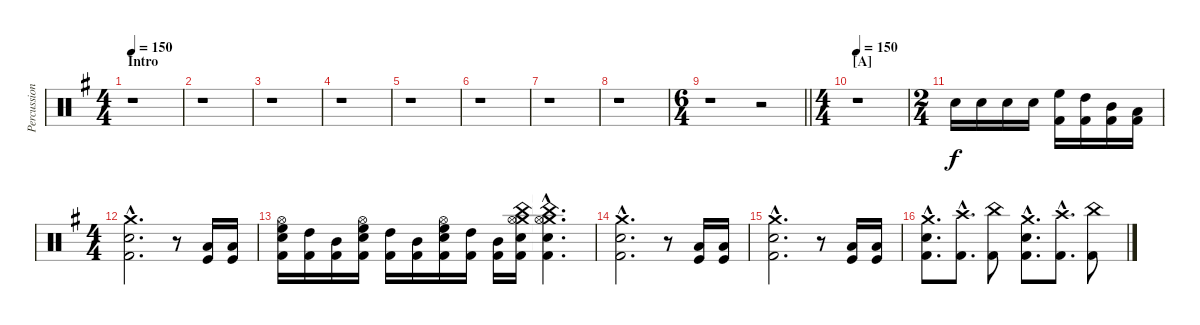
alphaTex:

\track ("Percussion" "Percussion") {instrument percussion}
\staff {score}
\articulation defaults
\ts (4 4)
\section ("" "Intro")
\tempo 150
\clef neutral
\ks eminor
r.1{dy f} |
r.1 |
r.1 |
r.1 |
r.1 |
r.1 |
r.1 |
r.1 |
\ts (6 4)
\barLineRight lightlight
r.1 r.2 |
\ts (4 4)
\section ("" "[A]")
\tempo 150
r.1 |
\ts (2 4)
"Snare (hit) 2".16 "Snare (hit) 2".16 "Snare (hit) 2".16 "Snare (hit) 2".16 ("High Floor Tom (hit)" "Kick (hit) 2").16 ("High Tom (hit)" "Kick (hit) 2").16 ("Mid Tom (hit)" "Kick (hit) 2").16 ("Low Tom (hit)" "Kick (hit) 2").16 |
\ts (4 4)
("Crash medium (hit)"{hac} "Snare (hit) 2"{hac} "Kick (hit) 2"{hac}).2{d} r.8 ("Low Floor Tom (hit)" "Kick (hit)").16 ("Low Floor Tom (hit)" "Kick (hit)").16 |
("High Floor Tom (hit)" "Hi-Hat (open)" "Snare (hit) 2" "Kick (hit) 2").16 ("High Tom (hit)" "Kick (hit) 2").16 ("Mid Tom (hit)" "Kick (hit) 2").16 ("High Floor Tom (hit)" "Hi-Hat (open)" "Snare (hit) 2" "Kick (hit) 2").16 ("High Tom (hit)" "Kick (hit) 2").16 ("Mid Tom (hit)" "Kick (hit) 2").16 ("High Floor Tom (hit)" "Hi-Hat (open)" "Snare (hit) 2" "Kick (hit) 2").16 ("High Tom (hit)" "Kick (hit) 2").16 ("Mid Tom (hit)" "Kick (hit) 2").16 ("Crash medium (hit)" "China (hit)" "Hi-Hat (open)" "Snare (hit) 2" "Kick (hit) 2").16 ("Crash medium (hit)"{hac t} "China (hit)"{hac t} "Hi-Hat (open)"{hac t} "Snare (hit) 2"{hac t} "Kick (hit) 2"{hac t}).4{d} |
("Crash medium (hit)"{hac} "Snare (hit) 2"{hac} "Kick (hit) 2"{hac}).2{d} r.8 ("Low Floor Tom (hit)" "Kick (hit)").16 ("Low Floor Tom (hit)" "Kick (hit)").16 |
("Crash medium (hit)"{hac} "Snare (hit) 2"{hac} "Kick (hit) 2"{hac}).2{d} r.8 ("Low Floor Tom (hit)" "Kick (hit)").16 ("Low Floor Tom (hit)" "Kick (hit)").16 |
("Crash medium (hit)"{hac} "Snare (hit) 2"{hac} "Kick (hit) 2"{hac}).8{d} ("Crash high (hit)"{hac} "Kick (hit) 2"{hac}).8{d} ("China (hit)" "Kick (hit) 2").8 ("Crash medium (hit)"{hac} "Snare (hit) 2"{hac} "Kick (hit) 2"{hac}).8{d} ("Crash high (hit)"{hac} "Kick (hit) 2"{hac}).8{d} ("China (hit)" "Kick (hit) 2").8
